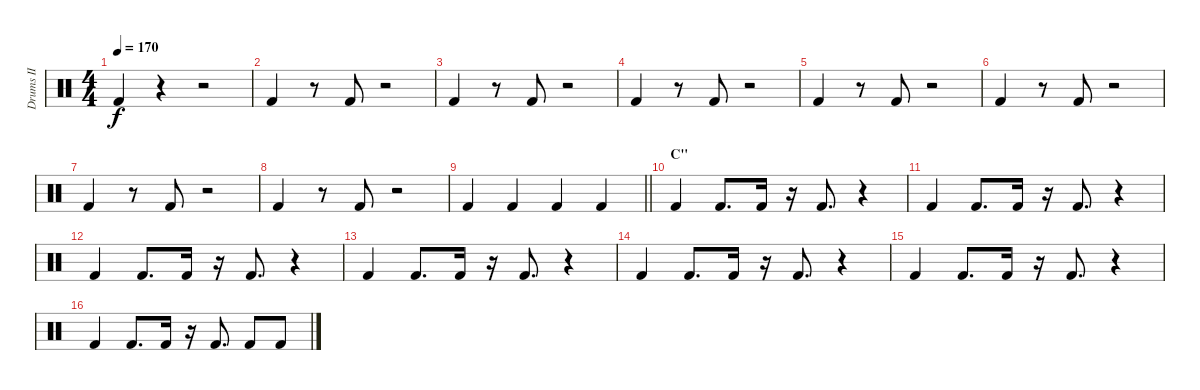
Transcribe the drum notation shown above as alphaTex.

\track ("Drums II" "Drums II") {instrument percussion}
\staff {score}
\articulation defaults
\ts (4 4)
\tempo 170
\clef neutral
\ks c "Kick (hit) 2".4{dy f}
r.4 r.2 |
"Kick (hit) 2".4 r.8 "Kick (hit) 2".8 r.2 |
"Kick (hit) 2".4 r.8 "Kick (hit) 2".8 r.2 |
"Kick (hit) 2".4 r.8 "Kick (hit) 2".8 r.2 |
"Kick (hit) 2".4 r.8 "Kick (hit) 2".8 r.2 |
"Kick (hit) 2".4 r.8 "Kick (hit) 2".8 r.2 |
"Kick (hit) 2".4 r.8 "Kick (hit) 2".8 r.2 |
"Kick (hit) 2".4 r.8 "Kick (hit) 2".8 r.2 |
\barLineRight lightlight "Kick (hit) 2".4 "Kick (hit) 2".4 "Kick (hit) 2".4 "Kick (hit) 2".4
|
\section ("" "C''")
"Kick (hit) 2".4 "Kick (hit) 2".8{d} "Kick (hit) 2".16 r.16 "Kick (hit) 2".8{d} r.4 |
"Kick (hit) 2".4 "Kick (hit) 2".8{d} "Kick (hit) 2".16 r.16 "Kick (hit) 2".8{d} r.4 |
"Kick (hit) 2".4 "Kick (hit) 2".8{d} "Kick (hit) 2".16 r.16 "Kick (hit) 2".8{d} r.4 |
"Kick (hit) 2".4 "Kick (hit) 2".8{d} "Kick (hit) 2".16 r.16 "Kick (hit) 2".8{d} r.4 |
"Kick (hit) 2".4 "Kick (hit) 2".8{d} "Kick (hit) 2".16 r.16 "Kick (hit) 2".8{d} r.4 |
"Kick (hit) 2".4 "Kick (hit) 2".8{d} "Kick (hit) 2".16 r.16 "Kick (hit) 2".8{d} r.4 |
"Kick (hit) 2".4 "Kick (hit) 2".8{d} "Kick (hit) 2".16 r.16 "Kick (hit) 2".8{d} "Kick (hit) 2".8 "Kick (hit) 2".8
